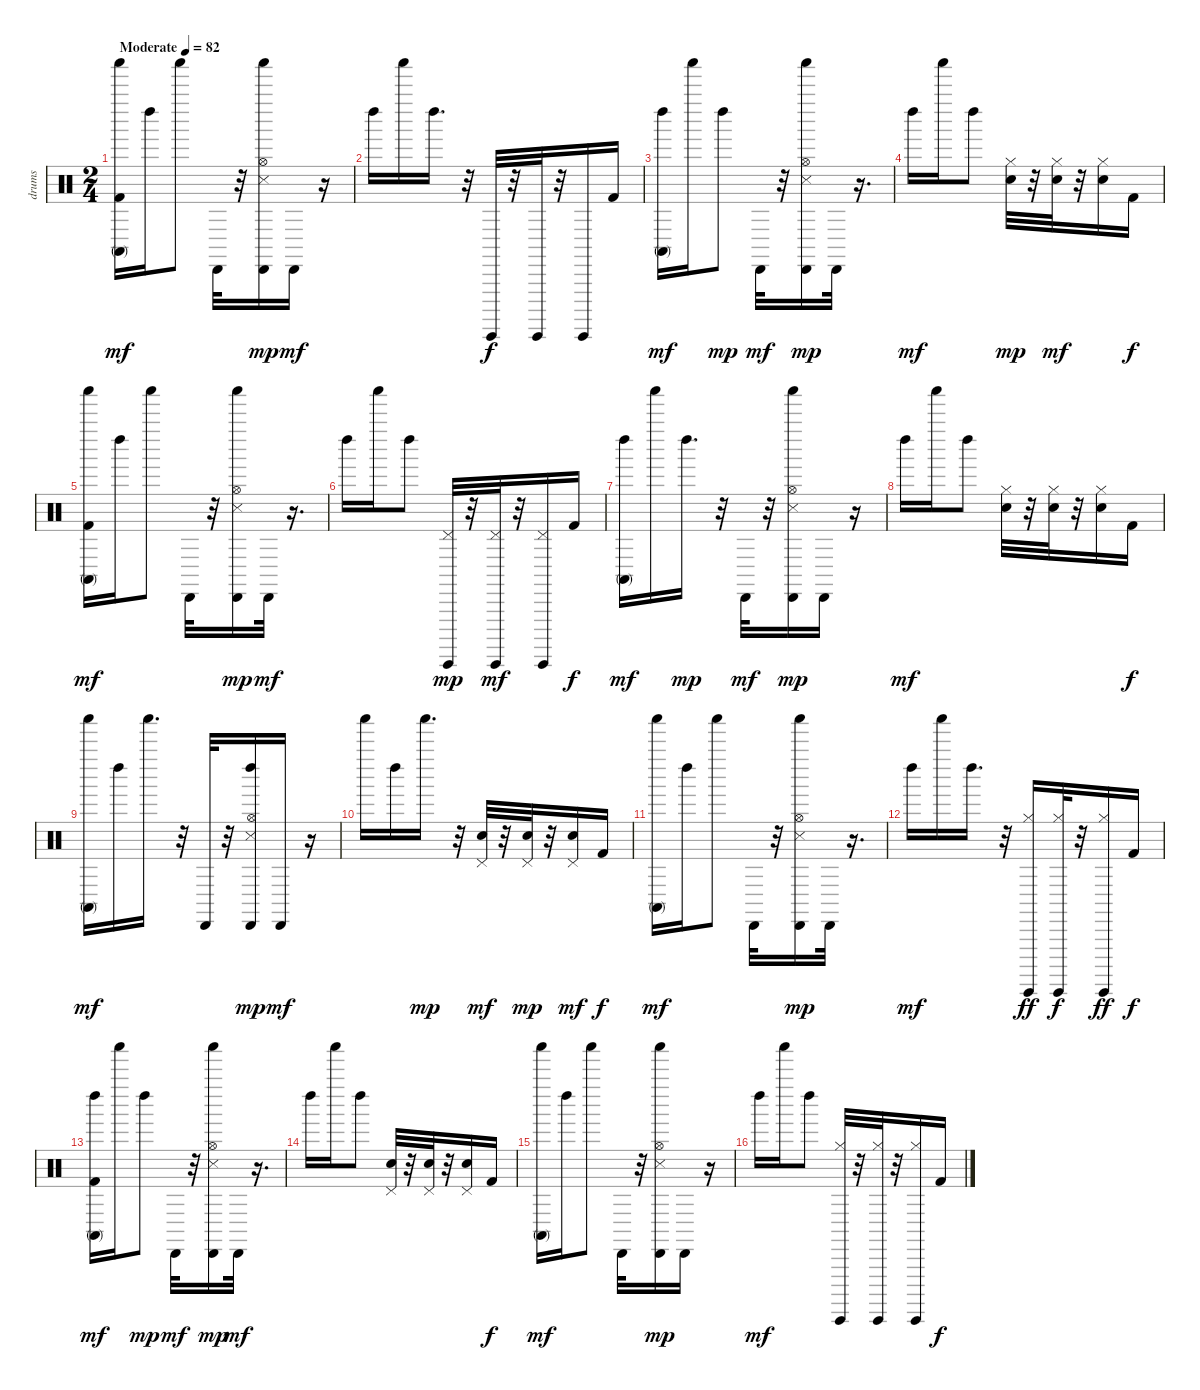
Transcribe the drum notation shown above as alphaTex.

\track ("drums" "drums") {instrument percussion}
\staff {score}
\articulation defaults
\ts (2 4)
\tempo (82 "Moderate")
\clef neutral
\ks c
("Kick (hit) 2" "Shaker (hit)" "Conga high (mute)").16{dy mf} "Left Maraca (hit)".16 "Shaker (hit)".8 "Cabasa (hit)".32 r.32 ("Snare (side stick) 3" "Shaker (hit)" "Hi-Hat (open)" "Cabasa (hit)").16{dy mp} "Cabasa (hit)".16{dy mf} r.16 |
"Left Maraca (hit)".16 "Shaker (hit)".16 "Left Maraca (hit)".16{d} r.32 "Guiro (hit)".32{dy f} r.32 "Guiro (hit)".32 r.32 "Guiro (hit)".16 "Kick (hit) 2".16 |
("Left Maraca (hit)" "Conga high (mute)").16{dy mf} "Shaker (hit)".16 "Left Maraca (hit)".8{dy mp} "Cabasa (hit)".32{dy mf} r.32 ("Snare (side stick) 3" "Shaker (hit)" "Hi-Hat (open)" "Cabasa (hit)").16{dy mp} "Cabasa (hit)".32 r.16{d} |
"Left Maraca (hit)".16{dy mf} "Shaker (hit)".16 "Left Maraca (hit)".8 ("Hand Clap (hit)" "Hi-Hat (closed)").32{dy mp} r.32 ("Hi-Hat (closed)" "Hand Clap (hit)").32{dy mf} r.32 ("Hi-Hat (closed)" "Hand Clap (hit)").16 "Kick (hit) 2".16{dy f} |
("Kick (hit) 2" "Shaker (hit)" "Conga high (mute)").16{dy mf} "Left Maraca (hit)".16 "Shaker (hit)".8 "Cabasa (hit)".32 r.32 ("Cabasa (hit)" "Hi-Hat (open)" "Shaker (hit)" "Snare (side stick) 3").16{dy mp} "Cabasa (hit)".32{dy mf} r.16{d} |
"Left Maraca (hit)".16 "Shaker (hit)".16 "Left Maraca (hit)".8 ("Pedal Hi-Hat (hit)" "Guiro (hit)").32{dy mp} r.32 ("Guiro (hit)" "Pedal Hi-Hat (hit)").32{dy mf} r.32 ("Guiro (hit)" "Pedal Hi-Hat (hit)").16 "Kick (hit) 2".16{dy f} |
("Left Maraca (hit)" "Conga high (mute)").16{dy mf} "Shaker (hit)".16 "Left Maraca (hit)".16{d dy mp} r.32 "Cabasa (hit)".32{dy mf} r.32 ("Cabasa (hit)" "Snare (side stick) 3" "Shaker (hit)" "Hi-Hat (open)").16{dy mp} "Cabasa (hit)".16 r.16 |
"Left Maraca (hit)".16{dy mf} "Shaker (hit)".16 "Left Maraca (hit)".8 ("Hand Clap (hit)" "Hi-Hat (closed)").32 r.32 ("Hi-Hat (closed)" "Hand Clap (hit)").32 r.32 ("Hi-Hat (closed)" "Hand Clap (hit)").16 "Kick (hit) 2".16{dy f} |
("Shaker (hit)" "Conga high (mute)").16{dy mf} "Left Maraca (hit)".16 "Shaker (hit)".16{d} r.32 "Cabasa (hit)".32 r.32 ("Hi-Hat (open)" "Left Maraca (hit)" "Snare (side stick) 3" "Cabasa (hit)").16{dy mp} "Cabasa (hit)".16{dy mf} r.16 |
"Shaker (hit)".16 "Left Maraca (hit)".16 "Shaker (hit)".16{d dy mp} r.32 ("Hand Clap (hit)" "Pedal Hi-Hat (hit)").32{dy mf} r.32 ("Pedal Hi-Hat (hit)" "Hand Clap (hit)").32{dy mp} r.32 ("Pedal Hi-Hat (hit)" "Hand Clap (hit)").16{dy mf} "Kick (hit) 2".16{dy f} |
("Shaker (hit)" "Conga high (mute)").16{dy mf} "Left Maraca (hit)".16 "Shaker (hit)".8 "Cabasa (hit)".32 r.32 ("Snare (side stick) 3" "Shaker (hit)" "Hi-Hat (open)" "Cabasa (hit)").16{dy mp} "Cabasa (hit)".32 r.16{d} |
"Left Maraca (hit)".16{dy mf} "Shaker (hit)".16 "Left Maraca (hit)".16{d} r.32 ("Hi-Hat (closed)" "Guiro (hit)").16{dy ff} ("Guiro (hit)" "Hi-Hat (closed)").32{dy f} r.32 ("Guiro (hit)" "Hi-Hat (closed)").16{dy ff} "Kick (hit) 2".16{dy f} |
("Kick (hit) 2" "Left Maraca (hit)" "Conga high (mute)").16{dy mf} "Shaker (hit)".16 "Left Maraca (hit)".8{dy mp} "Cabasa (hit)".32{dy mf} r.32 ("Cabasa (hit)" "Snare (side stick) 3" "Shaker (hit)" "Hi-Hat (open)").16{dy mp} "Cabasa (hit)".32{dy mf} r.16{d} |
"Left Maraca (hit)".16 "Shaker (hit)".16 "Left Maraca (hit)".8 ("Hand Clap (hit)" "Pedal Hi-Hat (hit)").32 r.32 ("Pedal Hi-Hat (hit)" "Hand Clap (hit)").32 r.32 ("Pedal Hi-Hat (hit)" "Hand Clap (hit)").16 "Kick (hit) 2".16{dy f} |
("Shaker (hit)" "Conga high (mute)").16{dy mf} "Left Maraca (hit)".16 "Shaker (hit)".8 "Cabasa (hit)".32 r.32 ("Cabasa (hit)" "Snare (side stick) 3" "Shaker (hit)" "Hi-Hat (open)").16{dy mp} "Cabasa (hit)".16 r.16 |
"Left Maraca (hit)".16{dy mf} "Shaker (hit)".16 "Left Maraca (hit)".8 ("Hi-Hat (closed)" "Guiro (hit)").32 r.32 ("Guiro (hit)" "Hi-Hat (closed)").32 r.32 ("Guiro (hit)" "Hi-Hat (closed)").16 "Kick (hit) 2".16{dy f}
